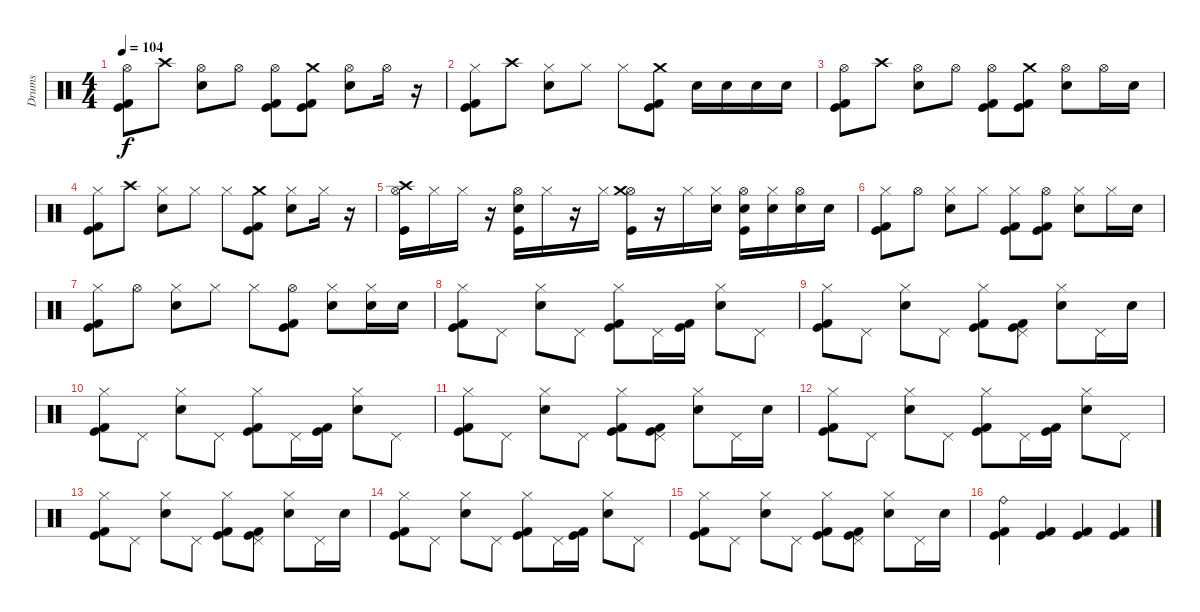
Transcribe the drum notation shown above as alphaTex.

\track ("Drums" "Drums") {instrument percussion}
\staff {score}
\articulation defaults
\ts (4 4)
\tempo 104
\clef neutral
\ks c
("Hi-Hat (open)" "Kick (hit) 2" "Kick (hit)").8{dy f} "Crash high (hit)".8 ("Hi-Hat (open)" "Snare (hit) 2").8 "Hi-Hat (open)".8 ("Hi-Hat (open)" "Kick (hit)" "Kick (hit) 2").8 ("Crash medium (hit)" "Kick (hit)" "Kick (hit) 2").8 ("Hi-Hat (open)" "Snare (hit) 2").8 "Hi-Hat (open)".16 r.16 |
("Hi-Hat (closed)" "Kick (hit) 2" "Kick (hit)").8 "Crash high (hit)".8 ("Hi-Hat (closed)" "Snare (hit) 2").8 "Hi-Hat (closed)".8 "Hi-Hat (closed)".8 ("Crash medium (hit)" "Kick (hit)" "Kick (hit) 2").8 "Snare (hit) 2".16 "Snare (hit) 2".16 "Snare (hit) 2".16 "Snare (hit) 2".16 |
("Hi-Hat (open)" "Kick (hit) 2" "Kick (hit)").8 "Crash high (hit)".8 ("Hi-Hat (open)" "Snare (hit) 2").8 "Hi-Hat (open)".8 ("Hi-Hat (open)" "Kick (hit)" "Kick (hit) 2").8 ("Crash medium (hit)" "Kick (hit)" "Kick (hit) 2").8 ("Hi-Hat (open)" "Snare (hit) 2").8 "Hi-Hat (open)".16 "Snare (hit) 2".16 |
("Hi-Hat (closed)" "Kick (hit) 2" "Kick (hit)").8 "Crash high (hit)".8 ("Hi-Hat (closed)" "Snare (hit) 2").8 "Hi-Hat (closed)".8 "Hi-Hat (closed)".8 ("Crash medium (hit)" "Kick (hit)" "Kick (hit) 2").8 ("Hi-Hat (closed)" "Snare (hit) 2").8 "Hi-Hat (closed)".16 r.16 |
("Hi-Hat (open)" "Crash high (hit)" "Kick (hit)").16 "Hi-Hat (closed)".16 "Hi-Hat (closed)".16 r.16 ("Hi-Hat (open)" "Snare (hit) 2" "Kick (hit)").16 "Hi-Hat (closed)".16 r.16 "Hi-Hat (closed)".16 ("Hi-Hat (open)" "Crash medium (hit)" "Kick (hit)").16 r.16 "Hi-Hat (closed)".16 ("Hi-Hat (closed)" "Snare (hit) 2").16 ("Hi-Hat (open)" "Snare (hit) 2" "Kick (hit)").16 ("Hi-Hat (closed)" "Snare (hit) 2").16 ("Hi-Hat (open)" "Snare (hit) 2").16 "Snare (hit) 2".16 |
("Hi-Hat (closed)" "Kick (hit) 2" "Kick (hit)").8 "Hi-Hat (open)".8 ("Hi-Hat (closed)" "Snare (hit) 2").8 "Hi-Hat (closed)".8 ("Hi-Hat (closed)" "Kick (hit)" "Kick (hit) 2").8 ("Hi-Hat (open)" "Kick (hit)" "Kick (hit) 2").8 ("Hi-Hat (closed)" "Snare (hit) 2").8 "Hi-Hat (closed)".16 "Snare (hit) 2".16 |
("Hi-Hat (closed)" "Kick (hit) 2" "Kick (hit)").8 "Hi-Hat (open)".8 ("Hi-Hat (closed)" "Snare (hit) 2").8 "Hi-Hat (closed)".8 "Hi-Hat (closed)".8 ("Hi-Hat (open)" "Kick (hit)" "Kick (hit) 2").8 ("Hi-Hat (closed)" "Snare (hit) 2").8 ("Hi-Hat (closed)" "Snare (hit) 2").16 "Snare (hit) 2".16 |
("Hi-Hat (closed)" "Kick (hit) 2" "Kick (hit)").8 "Pedal Hi-Hat (hit)".8 ("Hi-Hat (closed)" "Snare (hit) 2").8 "Pedal Hi-Hat (hit)".8 ("Hi-Hat (closed)" "Kick (hit)" "Kick (hit) 2").8 "Pedal Hi-Hat (hit)".16 ("Kick (hit)" "Kick (hit) 2").16 ("Hi-Hat (closed)" "Snare (hit) 2").8 "Pedal Hi-Hat (hit)".8 |
("Hi-Hat (closed)" "Kick (hit) 2" "Kick (hit)").8 "Pedal Hi-Hat (hit)".8 ("Hi-Hat (closed)" "Snare (hit) 2").8 "Pedal Hi-Hat (hit)".8 ("Hi-Hat (closed)" "Kick (hit)" "Kick (hit) 2").8 ("Pedal Hi-Hat (hit)" "Kick (hit)" "Kick (hit) 2").8 ("Hi-Hat (closed)" "Snare (hit) 2").8 "Pedal Hi-Hat (hit)".16 "Snare (hit) 2".16 |
("Hi-Hat (closed)" "Kick (hit) 2" "Kick (hit)").8 "Pedal Hi-Hat (hit)".8 ("Hi-Hat (closed)" "Snare (hit) 2").8 "Pedal Hi-Hat (hit)".8 ("Hi-Hat (closed)" "Kick (hit)" "Kick (hit) 2").8 "Pedal Hi-Hat (hit)".16 ("Kick (hit)" "Kick (hit) 2").16 ("Hi-Hat (closed)" "Snare (hit) 2").8 "Pedal Hi-Hat (hit)".8 |
("Hi-Hat (closed)" "Kick (hit) 2" "Kick (hit)").8 "Pedal Hi-Hat (hit)".8 ("Hi-Hat (closed)" "Snare (hit) 2").8 "Pedal Hi-Hat (hit)".8 ("Hi-Hat (closed)" "Kick (hit)" "Kick (hit) 2").8 ("Pedal Hi-Hat (hit)" "Kick (hit)" "Kick (hit) 2").8 ("Hi-Hat (closed)" "Snare (hit) 2").8 "Pedal Hi-Hat (hit)".16 "Snare (hit) 2".16 |
("Hi-Hat (closed)" "Kick (hit) 2" "Kick (hit)").8 "Pedal Hi-Hat (hit)".8 ("Hi-Hat (closed)" "Snare (hit) 2").8 "Pedal Hi-Hat (hit)".8 ("Hi-Hat (closed)" "Kick (hit)" "Kick (hit) 2").8 "Pedal Hi-Hat (hit)".16 ("Kick (hit)" "Kick (hit) 2").16 ("Hi-Hat (closed)" "Snare (hit) 2").8 "Pedal Hi-Hat (hit)".8 |
("Hi-Hat (closed)" "Kick (hit) 2" "Kick (hit)").8 "Pedal Hi-Hat (hit)".8 ("Hi-Hat (closed)" "Snare (hit) 2").8 "Pedal Hi-Hat (hit)".8 ("Hi-Hat (closed)" "Kick (hit)" "Kick (hit) 2").8 ("Pedal Hi-Hat (hit)" "Kick (hit)" "Kick (hit) 2").8 ("Hi-Hat (closed)" "Snare (hit) 2").8 "Pedal Hi-Hat (hit)".16 "Snare (hit) 2".16 |
("Hi-Hat (closed)" "Kick (hit) 2" "Kick (hit)").8 "Pedal Hi-Hat (hit)".8 ("Hi-Hat (closed)" "Snare (hit) 2").8 "Pedal Hi-Hat (hit)".8 ("Hi-Hat (closed)" "Kick (hit)" "Kick (hit) 2").8 "Pedal Hi-Hat (hit)".16 ("Kick (hit)" "Kick (hit) 2").16 ("Hi-Hat (closed)" "Snare (hit) 2").8 "Pedal Hi-Hat (hit)".8 |
("Hi-Hat (closed)" "Kick (hit) 2" "Kick (hit)").8 "Pedal Hi-Hat (hit)".8 ("Hi-Hat (closed)" "Snare (hit) 2").8 "Pedal Hi-Hat (hit)".8 ("Hi-Hat (closed)" "Kick (hit)" "Kick (hit) 2").8 ("Pedal Hi-Hat (hit)" "Kick (hit)" "Kick (hit) 2").8 ("Hi-Hat (closed)" "Snare (hit) 2").8 "Pedal Hi-Hat (hit)".16 "Snare (hit) 2".16 |
("Ride (bell)" "Kick (hit) 2" "Kick (hit)").4 ("Kick (hit) 2" "Kick (hit)").4 ("Kick (hit) 2" "Kick (hit)").4 ("Kick (hit) 2" "Kick (hit)").4
